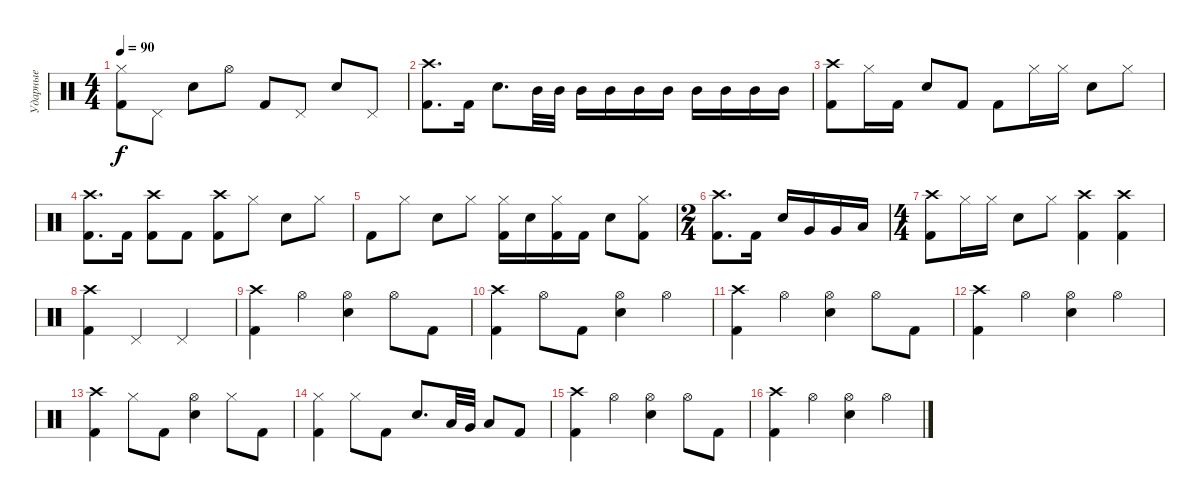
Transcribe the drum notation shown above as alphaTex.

\track ("Ударные" "Ударные") {instrument percussion}
\staff {score}
\articulation defaults
\ts (4 4)
\tempo 90
\clef neutral
\ks c
("Hi-Hat (closed)" "Kick (hit) 2").8{dy f} "Pedal Hi-Hat (hit)".8 "Snare (hit) 2".8 "Hi-Hat (open)".8 "Kick (hit) 2".8 "Pedal Hi-Hat (hit)".8 "Snare (hit) 2".8 "Pedal Hi-Hat (hit)".8 |
("Crash high (hit)" "Kick (hit) 2").8{d} "Kick (hit) 2".16 "Snare (hit) 2".8{d} "Mid Tom (hit)".32 "Mid Tom (hit)".32 "Mid Tom (hit)".16 "Mid Tom (hit)".16 "Mid Tom (hit)".16 "Mid Tom (hit)".16 "Mid Tom (hit)".16 "Mid Tom (hit)".16 "Mid Tom (hit)".16 "Mid Tom (hit)".16 |
("Crash high (hit)" "Kick (hit) 2").8 "Hi-Hat (closed)".16 "Kick (hit) 2".16 "Snare (hit) 2".8 "Kick (hit) 2".8 "Kick (hit) 2".8 "Hi-Hat (closed)".16 "Hi-Hat (closed)".16 "Snare (hit) 2".8 "Hi-Hat (closed)".8 |
("Crash high (hit)" "Kick (hit) 2").8{d} "Kick (hit) 2".16 ("Crash high (hit)" "Kick (hit) 2").8 "Kick (hit) 2".8 ("Crash high (hit)" "Kick (hit) 2").8 "Hi-Hat (closed)".8 "Snare (hit) 2".8 "Hi-Hat (closed)".8 |
"Kick (hit) 2".8 "Hi-Hat (closed)".8 "Snare (hit) 2".8 "Hi-Hat (closed)".8 ("Hi-Hat (closed)" "Kick (hit) 2").16 "Snare (hit) 2".16 ("Hi-Hat (closed)" "Kick (hit) 2").16 "Kick (hit) 2".16 "Snare (hit) 2".8 ("Hi-Hat (closed)" "Kick (hit) 2").8 |
\ts (2 4)
("Crash high (hit)" "Kick (hit) 2").8{d} "Kick (hit) 2".16 "Snare (hit) 2".16 "Very Low Tom (hit)".16 "Very Low Tom (hit)".16 "Low Floor Tom (hit)".16 |
\ts (4 4)
("Crash high (hit)" "Kick (hit) 2").8 "Hi-Hat (closed)".16 "Hi-Hat (closed)".16 "Snare (hit) 2".8 "Hi-Hat (closed)".8 ("Crash high (hit)" "Kick (hit) 2").4 ("Crash high (hit)" "Kick (hit) 2").4 |
("Crash high (hit)" "Kick (hit) 2").4 "Pedal Hi-Hat (hit)".4 "Pedal Hi-Hat (hit)".2 |
("Crash high (hit)" "Kick (hit) 2").4 "Hi-Hat (open)".4 ("Hi-Hat (open)" "Snare (hit) 2").4 "Hi-Hat (open)".8 "Kick (hit) 2".8 |
("Crash high (hit)" "Kick (hit) 2").4 "Hi-Hat (open)".8 "Kick (hit) 2".8 ("Hi-Hat (open)" "Snare (hit) 2").4 "Hi-Hat (open)".4 |
("Crash high (hit)" "Kick (hit) 2").4 "Hi-Hat (open)".4 ("Hi-Hat (open)" "Snare (hit) 2").4 "Hi-Hat (open)".8 "Kick (hit) 2".8 |
("Crash high (hit)" "Kick (hit) 2").4 "Hi-Hat (open)".4 ("Hi-Hat (open)" "Snare (hit) 2").4 "Hi-Hat (open)".4 |
("Crash high (hit)" "Kick (hit) 2").4 "Hi-Hat (closed)".8 "Kick (hit) 2".8 ("Hi-Hat (open)" "Snare (hit) 2").4 "Hi-Hat (closed)".8 "Kick (hit) 2".8 |
("Hi-Hat (closed)" "Kick (hit) 2").4 "Hi-Hat (closed)".8 "Kick (hit) 2".8 "Snare (hit) 2".8{d} "Low Tom (hit)".32 "Very Low Tom (hit)".32 "Low Floor Tom (hit)".8 "Kick (hit) 2".8 |
("Crash high (hit)" "Kick (hit) 2").4 "Hi-Hat (open)".4 ("Hi-Hat (open)" "Snare (hit) 2").4 "Hi-Hat (open)".8 "Kick (hit) 2".8 |
("Crash high (hit)" "Kick (hit) 2").4 "Hi-Hat (open)".4 ("Hi-Hat (open)" "Snare (hit) 2").4 "Hi-Hat (open)".4
